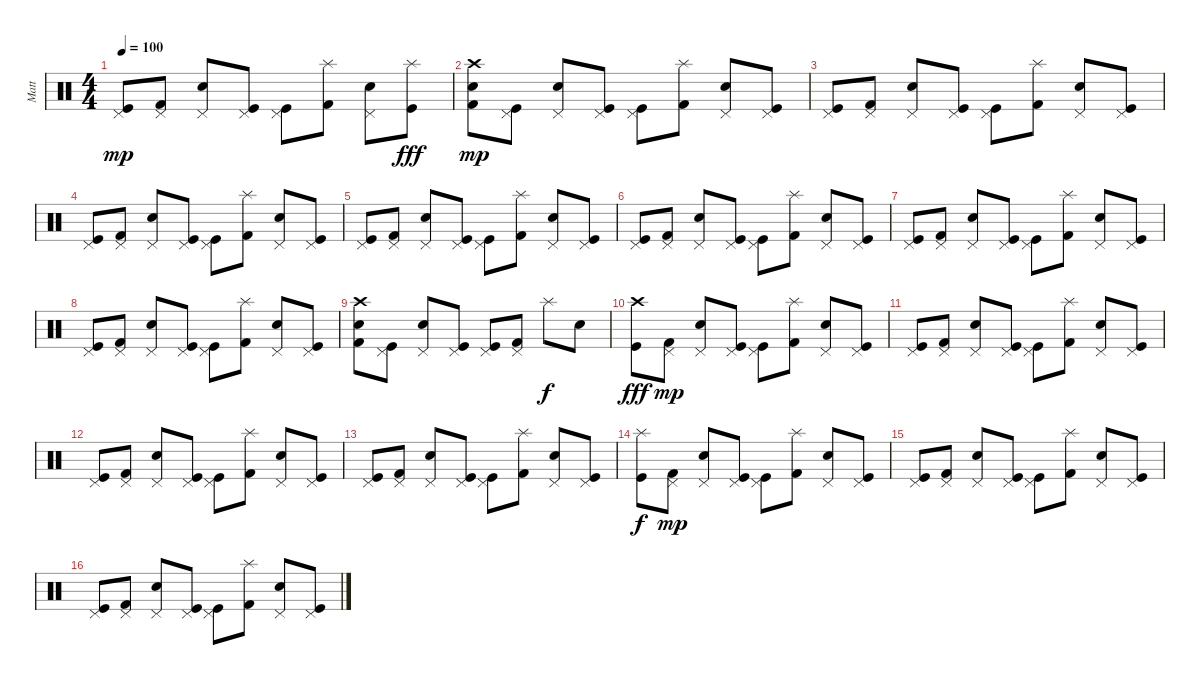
\track ("Matt" "Matt") {instrument percussion}
\staff {score}
\articulation defaults
\ts (4 4)
\tempo 100
\clef neutral
\ks c
("Kick (hit)" "Pedal Hi-Hat (hit)").8{dy mp} ("Kick (hit) 2" "Pedal Hi-Hat (hit)").8 ("Electric Snare (hit)" "Pedal Hi-Hat (hit)").8 ("Kick (hit)" "Pedal Hi-Hat (hit)").8 ("Kick (hit)" "Pedal Hi-Hat (hit)").8 ("Kick (hit) 2" "Splash (hit)").8 ("Electric Snare (hit)" "Pedal Hi-Hat (hit)").8 ("Kick (hit)" "Splash (hit)").8{dy fff} |
("Electric Snare (hit)" "Kick (hit) 2" "Crash high (hit)").8{dy mp} ("Kick (hit)" "Pedal Hi-Hat (hit)").8 ("Electric Snare (hit)" "Pedal Hi-Hat (hit)").8 ("Kick (hit)" "Pedal Hi-Hat (hit)").8 ("Kick (hit)" "Pedal Hi-Hat (hit)").8 ("Kick (hit) 2" "Splash (hit)").8 ("Electric Snare (hit)" "Pedal Hi-Hat (hit)").8 ("Kick (hit)" "Pedal Hi-Hat (hit)").8 |
("Kick (hit)" "Pedal Hi-Hat (hit)").8 ("Kick (hit) 2" "Pedal Hi-Hat (hit)").8 ("Electric Snare (hit)" "Pedal Hi-Hat (hit)").8 ("Kick (hit)" "Pedal Hi-Hat (hit)").8 ("Kick (hit)" "Pedal Hi-Hat (hit)").8 ("Kick (hit) 2" "Splash (hit)").8 ("Electric Snare (hit)" "Pedal Hi-Hat (hit)").8 ("Kick (hit)" "Pedal Hi-Hat (hit)").8 |
("Kick (hit)" "Pedal Hi-Hat (hit)").8 ("Kick (hit) 2" "Pedal Hi-Hat (hit)").8 ("Electric Snare (hit)" "Pedal Hi-Hat (hit)").8 ("Kick (hit)" "Pedal Hi-Hat (hit)").8 ("Kick (hit)" "Pedal Hi-Hat (hit)").8 ("Kick (hit) 2" "Splash (hit)").8 ("Electric Snare (hit)" "Pedal Hi-Hat (hit)").8 ("Kick (hit)" "Pedal Hi-Hat (hit)").8 |
("Kick (hit)" "Pedal Hi-Hat (hit)").8 ("Kick (hit) 2" "Pedal Hi-Hat (hit)").8 ("Electric Snare (hit)" "Pedal Hi-Hat (hit)").8 ("Kick (hit)" "Pedal Hi-Hat (hit)").8 ("Kick (hit)" "Pedal Hi-Hat (hit)").8 ("Kick (hit) 2" "Splash (hit)").8 ("Electric Snare (hit)" "Pedal Hi-Hat (hit)").8 ("Kick (hit)" "Pedal Hi-Hat (hit)").8 |
("Kick (hit)" "Pedal Hi-Hat (hit)").8 ("Kick (hit) 2" "Pedal Hi-Hat (hit)").8 ("Electric Snare (hit)" "Pedal Hi-Hat (hit)").8 ("Kick (hit)" "Pedal Hi-Hat (hit)").8 ("Kick (hit)" "Pedal Hi-Hat (hit)").8 ("Kick (hit) 2" "Splash (hit)").8 ("Electric Snare (hit)" "Pedal Hi-Hat (hit)").8 ("Kick (hit)" "Pedal Hi-Hat (hit)").8 |
("Kick (hit)" "Pedal Hi-Hat (hit)").8 ("Kick (hit) 2" "Pedal Hi-Hat (hit)").8 ("Electric Snare (hit)" "Pedal Hi-Hat (hit)").8 ("Kick (hit)" "Pedal Hi-Hat (hit)").8 ("Kick (hit)" "Pedal Hi-Hat (hit)").8 ("Kick (hit) 2" "Splash (hit)").8 ("Electric Snare (hit)" "Pedal Hi-Hat (hit)").8 ("Kick (hit)" "Pedal Hi-Hat (hit)").8 |
("Kick (hit)" "Pedal Hi-Hat (hit)").8 ("Kick (hit) 2" "Pedal Hi-Hat (hit)").8 ("Electric Snare (hit)" "Pedal Hi-Hat (hit)").8 ("Kick (hit)" "Pedal Hi-Hat (hit)").8 ("Kick (hit)" "Pedal Hi-Hat (hit)").8 ("Kick (hit) 2" "Splash (hit)").8 ("Electric Snare (hit)" "Pedal Hi-Hat (hit)").8 ("Kick (hit)" "Pedal Hi-Hat (hit)").8 |
("Electric Snare (hit)" "Kick (hit) 2" "Crash high (hit)").8 ("Kick (hit)" "Pedal Hi-Hat (hit)").8 ("Electric Snare (hit)" "Pedal Hi-Hat (hit)").8 ("Kick (hit)" "Pedal Hi-Hat (hit)").8 ("Kick (hit)" "Pedal Hi-Hat (hit)").8 ("Kick (hit) 2"{tr (36 16)} "Pedal Hi-Hat (hit)").8 "Splash (hit)".8{dy f} "Electric Snare (hit)"{tr (40 16)}.8 |
("Kick (hit)" "Crash high (hit)").8{dy fff} ("Kick (hit) 2" "Pedal Hi-Hat (hit)").8{dy mp} ("Electric Snare (hit)" "Pedal Hi-Hat (hit)").8 ("Kick (hit)" "Pedal Hi-Hat (hit)").8 ("Kick (hit)" "Pedal Hi-Hat (hit)").8 ("Kick (hit) 2" "Splash (hit)").8 ("Electric Snare (hit)" "Pedal Hi-Hat (hit)").8 ("Kick (hit)" "Pedal Hi-Hat (hit)").8 |
("Kick (hit)" "Pedal Hi-Hat (hit)").8 ("Kick (hit) 2" "Pedal Hi-Hat (hit)").8 ("Electric Snare (hit)" "Pedal Hi-Hat (hit)").8 ("Kick (hit)" "Pedal Hi-Hat (hit)").8 ("Kick (hit)" "Pedal Hi-Hat (hit)").8 ("Kick (hit) 2" "Splash (hit)").8 ("Electric Snare (hit)" "Pedal Hi-Hat (hit)").8 ("Kick (hit)" "Pedal Hi-Hat (hit)").8 |
("Kick (hit)" "Pedal Hi-Hat (hit)").8 ("Kick (hit) 2" "Pedal Hi-Hat (hit)").8 ("Electric Snare (hit)" "Pedal Hi-Hat (hit)").8 ("Kick (hit)" "Pedal Hi-Hat (hit)").8 ("Kick (hit)" "Pedal Hi-Hat (hit)").8 ("Kick (hit) 2" "Splash (hit)").8 ("Electric Snare (hit)" "Pedal Hi-Hat (hit)").8 ("Kick (hit)" "Pedal Hi-Hat (hit)").8 |
("Kick (hit)" "Pedal Hi-Hat (hit)").8 ("Kick (hit) 2" "Pedal Hi-Hat (hit)").8 ("Electric Snare (hit)" "Pedal Hi-Hat (hit)").8 ("Kick (hit)" "Pedal Hi-Hat (hit)").8 ("Kick (hit)" "Pedal Hi-Hat (hit)").8 ("Kick (hit) 2" "Splash (hit)").8 ("Electric Snare (hit)" "Pedal Hi-Hat (hit)").8 ("Kick (hit)" "Pedal Hi-Hat (hit)").8 |
("Kick (hit)" "Splash (hit)").8{dy f} ("Kick (hit) 2" "Pedal Hi-Hat (hit)").8{dy mp} ("Electric Snare (hit)" "Pedal Hi-Hat (hit)").8 ("Kick (hit)" "Pedal Hi-Hat (hit)").8 ("Kick (hit)" "Pedal Hi-Hat (hit)").8 ("Kick (hit) 2" "Splash (hit)").8 ("Electric Snare (hit)" "Pedal Hi-Hat (hit)").8 ("Kick (hit)" "Pedal Hi-Hat (hit)").8 |
("Kick (hit)" "Pedal Hi-Hat (hit)").8 ("Kick (hit) 2" "Pedal Hi-Hat (hit)").8 ("Electric Snare (hit)" "Pedal Hi-Hat (hit)").8 ("Kick (hit)" "Pedal Hi-Hat (hit)").8 ("Kick (hit)" "Pedal Hi-Hat (hit)").8 ("Kick (hit) 2" "Splash (hit)").8 ("Electric Snare (hit)" "Pedal Hi-Hat (hit)").8 ("Kick (hit)" "Pedal Hi-Hat (hit)").8 |
("Kick (hit)" "Pedal Hi-Hat (hit)").8 ("Kick (hit) 2" "Pedal Hi-Hat (hit)").8 ("Electric Snare (hit)" "Pedal Hi-Hat (hit)").8 ("Kick (hit)" "Pedal Hi-Hat (hit)").8 ("Kick (hit)" "Pedal Hi-Hat (hit)").8 ("Kick (hit) 2" "Splash (hit)").8 ("Electric Snare (hit)" "Pedal Hi-Hat (hit)").8 ("Kick (hit)" "Pedal Hi-Hat (hit)").8
